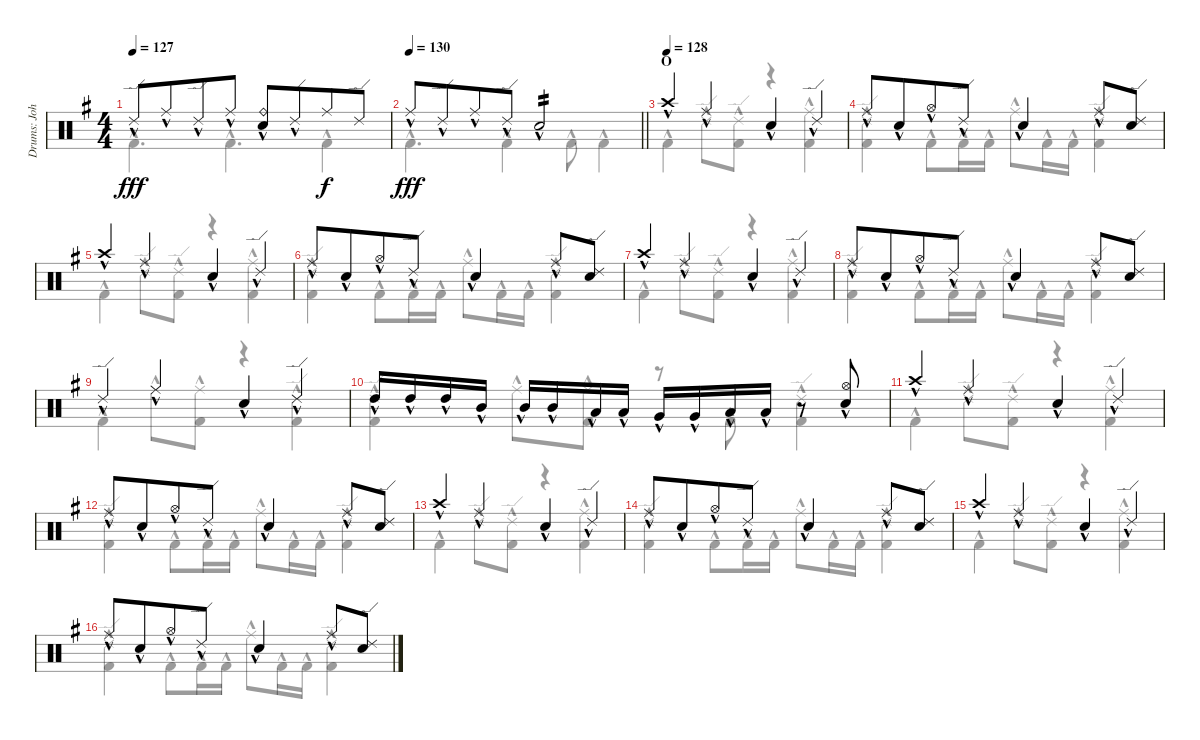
\track ("Drums: John" "Drums: Joh") {instrument percussion}
\staff {score}
\articulation defaults
\voice
\ts (4 4)
\tempo 127
\clef neutral
\ks g "Ride (edge) 2"{hac}.8{dy fff} "Ride (middle)"{hac}.8{beam merge} "Ride (edge) 2"{hac}.8 "Ride (middle)"{hac}.8
("Ride (bell)" "Snare (hit) 2"{hac}).8 "Ride (edge) 2"{hac}.8{beam merge} "Ride (middle)".8{dy f} "Ride (edge) 2".8 |
\tempo 130
\barLineRight lightlight "Ride (middle)"{hac}.8{dy fff} "Ride (edge) 2"{hac}.8{beam merge} "Ride (middle)"{hac}.8 "Ride (edge) 2"{hac}.8 "Electric Snare (hit)"{hac}.2{tp 2}
|
\section ("" "O")
\tempo (128)
"Crash high (hit)"{hac}.4 "Ride (middle)"{hac}.4 "Snare (hit) 2"{hac}.4 "Ride (edge) 2"{hac}.4 |
"Ride (middle)"{hac}.8 "Snare (hit) 2"{hac}.8{beam merge} "Hi-Hat (open)"{hac}.8 "Ride (edge) 2"{hac}.8 "Snare (hit) 2"{hac}.4 "Ride (middle)"{hac}.8 ("Ride (edge) 2" "Electric Snare (hit)").8 |
"Crash high (hit)"{hac}.4 "Ride (middle)"{hac}.4 "Snare (hit) 2"{hac}.4 "Ride (edge) 2"{hac}.4 |
"Ride (middle)"{hac}.8 "Snare (hit) 2"{hac}.8{beam merge} "Hi-Hat (open)"{hac}.8 "Ride (edge) 2"{hac}.8 "Snare (hit) 2"{hac}.4 "Ride (middle)"{hac}.8 ("Ride (edge) 2" "Electric Snare (hit)").8 |
"Crash high (hit)"{hac}.4 "Ride (middle)"{hac}.4 "Snare (hit) 2"{hac}.4 "Ride (edge) 2"{hac}.4 |
"Ride (middle)"{hac}.8 "Snare (hit) 2"{hac}.8{beam merge} "Hi-Hat (open)"{hac}.8 "Ride (edge) 2"{hac}.8 "Snare (hit) 2"{hac}.4 "Ride (middle)"{hac}.8 ("Ride (edge) 2" "Electric Snare (hit)").8 |
"Ride (edge) 2"{hac}.4 "Ride (middle)"{hac}.4 "Snare (hit) 2"{hac}.4 "Ride (edge) 2"{hac}.4 |
"High Tom (hit)"{hac}.16 "High Tom (hit)"{hac}.16 "High Tom (hit)"{hac}.16 "Mid Tom (hit)"{hac}.16 "Mid Tom (hit)"{hac}.16 "Mid Tom (hit)"{hac}.16 "Low Tom (hit)"{hac}.16 "Low Tom (hit)"{hac}.16 "Very Low Tom (hit)"{hac}.16 "Very Low Tom (hit)"{hac}.16 "Low Floor Tom (hit)"{hac}.16 "Low Floor Tom (hit)"{hac}.16 r.8 ("Hi-Hat (open)"{hac} "Snare (hit) 2"{hac}).8 |
"Crash high (hit)"{hac}.4 "Ride (middle)"{hac}.4 "Snare (hit) 2"{hac}.4 "Ride (edge) 2"{hac}.4 |
"Ride (middle)"{hac}.8 "Snare (hit) 2"{hac}.8{beam merge} "Hi-Hat (open)"{hac}.8 "Ride (edge) 2"{hac}.8 "Snare (hit) 2"{hac}.4 "Ride (middle)"{hac}.8 ("Ride (edge) 2" "Electric Snare (hit)").8 |
"Crash high (hit)"{hac}.4 "Ride (middle)"{hac}.4 "Snare (hit) 2"{hac}.4 "Ride (edge) 2"{hac}.4 |
"Ride (middle)"{hac}.8 "Snare (hit) 2"{hac}.8{beam merge} "Hi-Hat (open)"{hac}.8 "Ride (edge) 2"{hac}.8 "Snare (hit) 2"{hac}.4 "Ride (middle)"{hac}.8 ("Ride (edge) 2" "Electric Snare (hit)").8 |
"Crash high (hit)"{hac}.4 "Ride (middle)"{hac}.4 "Snare (hit) 2"{hac}.4 "Ride (edge) 2"{hac}.4 |
"Ride (middle)"{hac}.8 "Snare (hit) 2"{hac}.8{beam merge} "Hi-Hat (open)"{hac}.8 "Ride (edge) 2"{hac}.8 "Snare (hit) 2"{hac}.4 "Ride (middle)"{hac}.8 ("Ride (edge) 2" "Electric Snare (hit)").8
\voice
\clef neutral
\ottava regular
\simile none
\ks g "Kick (hit) 2"{hac}.4{d dy fff} "Kick (hit) 2"{hac}.4{d} "Kick (hit) 2"{hac}.4
|
\barLineRight lightlight "Kick (hit) 2"{hac}.4{d} "Kick (hit) 2"{hac}.4 "Kick (hit) 2"{hac}.8 "Kick (hit) 2"{hac}.4
|
"Kick (hit) 2"{hac}.4 "Ride (edge) 2"{hac}.8 ("Ride (edge) 2"{hac} "Kick (hit) 2"{hac}).8 r.4 ("Ride (middle)"{hac} "Kick (hit) 2"{hac}).4 |
("Ride (edge) 2"{hac} "Kick (hit) 2"{hac}).4 "Kick (hit) 2"{hac}.8 "Kick (hit) 2"{hac}.16 "Kick (hit) 2"{hac}.16 "Ride (middle)"{hac}.8 "Kick (hit) 2"{hac}.16 "Kick (hit) 2"{hac}.16 ("Ride (edge) 2"{hac} "Kick (hit) 2"{hac}).4 |
"Kick (hit) 2"{hac}.4 "Ride (edge) 2"{hac}.8 ("Ride (edge) 2"{hac} "Kick (hit) 2"{hac}).8 r.4 ("Ride (middle)"{hac} "Kick (hit) 2"{hac}).4 |
("Ride (edge) 2"{hac} "Kick (hit) 2"{hac}).4 "Kick (hit) 2"{hac}.8 "Kick (hit) 2"{hac}.16 "Kick (hit) 2"{hac}.16 "Ride (middle)"{hac}.8 "Kick (hit) 2"{hac}.16 "Kick (hit) 2"{hac}.16 ("Ride (edge) 2"{hac} "Kick (hit) 2"{hac}).4 |
"Kick (hit) 2"{hac}.4 "Ride (edge) 2"{hac}.8 ("Ride (edge) 2"{hac} "Kick (hit) 2"{hac}).8 r.4 ("Ride (middle)"{hac} "Kick (hit) 2"{hac}).4 |
("Ride (edge) 2"{hac} "Kick (hit) 2"{hac}).4 "Kick (hit) 2"{hac}.8 "Kick (hit) 2"{hac}.16 "Kick (hit) 2"{hac}.16 "Ride (middle)"{hac}.8 "Kick (hit) 2"{hac}.16 "Kick (hit) 2"{hac}.16 ("Ride (edge) 2"{hac} "Kick (hit) 2"{hac}).4 |
"Kick (hit) 2"{hac}.4 "Ride (middle)"{hac}.8 ("Ride (middle)"{hac} "Kick (hit) 2"{hac}).8 r.4 ("Ride (edge) 2"{hac} "Kick (hit) 2"{hac}).4 |
("Ride (edge) 2"{hac} "Kick (hit) 2"{hac}).4 "Ride (middle)"{hac}.8 ("Ride (middle)"{hac} "Kick (hit) 2"{hac}).8 r.8 "Kick (hit) 2"{hac}.8 ("Ride (edge) 2"{hac} "Kick (hit) 2"{hac}).4 |
"Kick (hit) 2"{hac}.4 "Ride (edge) 2"{hac}.8 ("Ride (edge) 2"{hac} "Kick (hit) 2"{hac}).8 r.4 ("Ride (middle)"{hac} "Kick (hit) 2"{hac}).4 |
("Ride (edge) 2"{hac} "Kick (hit) 2"{hac}).4 "Kick (hit) 2"{hac}.8 "Kick (hit) 2"{hac}.16 "Kick (hit) 2"{hac}.16 "Ride (middle)"{hac}.8 "Kick (hit) 2"{hac}.16 "Kick (hit) 2"{hac}.16 ("Ride (edge) 2"{hac} "Kick (hit) 2"{hac}).4 |
"Kick (hit) 2"{hac}.4 "Ride (edge) 2"{hac}.8 ("Ride (edge) 2"{hac} "Kick (hit) 2"{hac}).8 r.4 ("Ride (middle)"{hac} "Kick (hit) 2"{hac}).4 |
("Ride (edge) 2"{hac} "Kick (hit) 2"{hac}).4 "Kick (hit) 2"{hac}.8 "Kick (hit) 2"{hac}.16 "Kick (hit) 2"{hac}.16 "Ride (middle)"{hac}.8 "Kick (hit) 2"{hac}.16 "Kick (hit) 2"{hac}.16 ("Ride (edge) 2"{hac} "Kick (hit) 2"{hac}).4 |
"Kick (hit) 2"{hac}.4 "Ride (edge) 2"{hac}.8 ("Ride (edge) 2"{hac} "Kick (hit) 2"{hac}).8 r.4 ("Ride (middle)"{hac} "Kick (hit) 2"{hac}).4 |
("Ride (edge) 2"{hac} "Kick (hit) 2"{hac}).4 "Kick (hit) 2"{hac}.8 "Kick (hit) 2"{hac}.16 "Kick (hit) 2"{hac}.16 "Ride (middle)"{hac}.8 "Kick (hit) 2"{hac}.16 "Kick (hit) 2"{hac}.16 ("Ride (edge) 2"{hac} "Kick (hit) 2"{hac}).4
